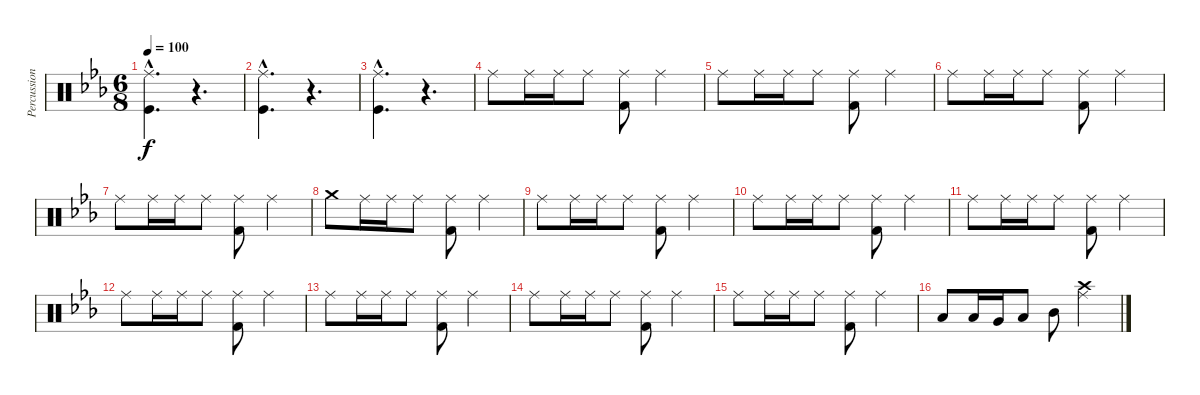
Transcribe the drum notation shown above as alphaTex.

\track ("Percussion" "Percussion") {instrument percussion}
\staff {score}
\articulation defaults
\ts (6 8)
\tempo 100
\clef neutral
\ks eb
("Ride (middle)"{hac} "Kick (hit)"{hac}).4{d dy f} r.4{d} |
("Ride (middle)"{hac} "Kick (hit)"{hac}).4{d} r.4{d} |
("Ride (middle)"{hac} "Kick (hit)"{hac}).4{d} r.4{d} |
"Ride (middle)".8 "Ride (middle)".16 "Ride (middle)".16 "Ride (middle)".8 ("Ride (middle)" "Kick (hit) 2").8 "Ride (middle)".4 |
"Ride (middle)".8 "Ride (middle)".16 "Ride (middle)".16 "Ride (middle)".8 ("Ride (middle)" "Kick (hit) 2").8 "Ride (middle)".4 |
"Ride (middle)".8 "Ride (middle)".16 "Ride (middle)".16 "Ride (middle)".8 ("Ride (middle)" "Kick (hit) 2").8 "Ride (middle)".4 |
"Ride (middle)".8 "Ride (middle)".16 "Ride (middle)".16 "Ride (middle)".8 ("Ride (middle)" "Kick (hit) 2").8 "Ride (middle)".4 |
"Crash medium (hit)".8 "Ride (middle)".16 "Ride (middle)".16 "Ride (middle)".8 ("Ride (middle)" "Kick (hit) 2").8 "Ride (middle)".4 |
"Ride (middle)".8 "Ride (middle)".16 "Ride (middle)".16 "Ride (middle)".8 ("Ride (middle)" "Kick (hit) 2").8 "Ride (middle)".4 |
"Ride (middle)".8 "Ride (middle)".16 "Ride (middle)".16 "Ride (middle)".8 ("Ride (middle)" "Kick (hit) 2").8 "Ride (middle)".4 |
"Ride (middle)".8 "Ride (middle)".16 "Ride (middle)".16 "Ride (middle)".8 ("Ride (middle)" "Kick (hit) 2").8 "Ride (middle)".4 |
"Ride (middle)".8 "Ride (middle)".16 "Ride (middle)".16 "Ride (middle)".8 ("Ride (middle)" "Kick (hit) 2").8 "Ride (middle)".4 |
"Ride (middle)".8 "Ride (middle)".16 "Ride (middle)".16 "Ride (middle)".8 ("Ride (middle)" "Kick (hit) 2").8 "Ride (middle)".4 |
"Ride (middle)".8 "Ride (middle)".16 "Ride (middle)".16 "Ride (middle)".8 ("Ride (middle)" "Kick (hit) 2").8 "Ride (middle)".4 |
"Ride (middle)".8 "Ride (middle)".16 "Ride (middle)".16 "Ride (middle)".8 ("Ride (middle)" "Kick (hit) 2").8 "Ride (middle)".4 |
"Low Floor Tom (hit)".8 "Low Floor Tom (hit)".16 "Very Low Tom (hit)".16 "Low Tom (hit)".8 "Mid Tom (hit)".8 ("Ride (middle)" "Crash high (hit)").4
